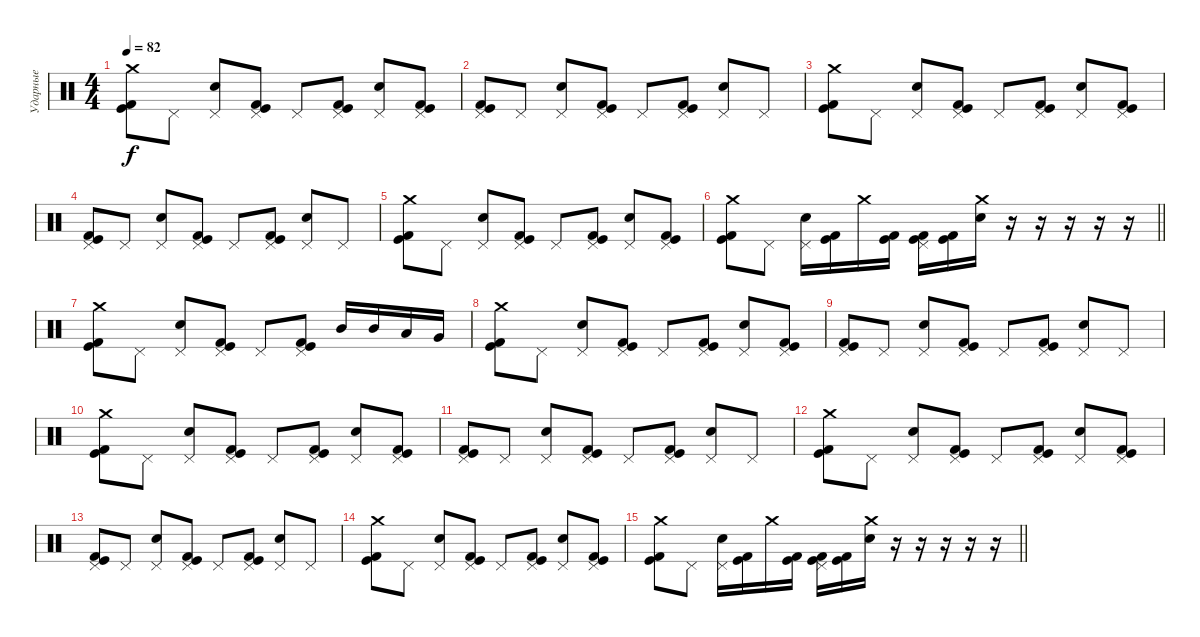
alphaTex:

\track ("Ударные" "Ударные") {instrument percussion}
\staff {score}
\articulation defaults
\ts (4 4)
\tempo 82
\clef neutral
\ks c
("Crash medium (hit)" "Kick (hit)" "Kick (hit) 2").8{dy f} "Pedal Hi-Hat (hit)".8 ("Pedal Hi-Hat (hit)" "Electric Snare (hit)").8 ("Pedal Hi-Hat (hit)" "Kick (hit)" "Kick (hit) 2").8 "Pedal Hi-Hat (hit)".8 ("Pedal Hi-Hat (hit)" "Kick (hit)" "Kick (hit) 2").8 ("Pedal Hi-Hat (hit)" "Electric Snare (hit)").8 ("Pedal Hi-Hat (hit)" "Kick (hit)" "Kick (hit) 2").8 |
("Pedal Hi-Hat (hit)" "Kick (hit)" "Kick (hit) 2").8 "Pedal Hi-Hat (hit)".8 ("Pedal Hi-Hat (hit)" "Electric Snare (hit)").8 ("Pedal Hi-Hat (hit)" "Kick (hit)" "Kick (hit) 2").8 "Pedal Hi-Hat (hit)".8 ("Pedal Hi-Hat (hit)" "Kick (hit)" "Kick (hit) 2").8 ("Pedal Hi-Hat (hit)" "Electric Snare (hit)").8 "Pedal Hi-Hat (hit)".8 |
("Crash medium (hit)" "Kick (hit)" "Kick (hit) 2").8 "Pedal Hi-Hat (hit)".8 ("Pedal Hi-Hat (hit)" "Electric Snare (hit)").8 ("Pedal Hi-Hat (hit)" "Kick (hit)" "Kick (hit) 2").8 "Pedal Hi-Hat (hit)".8 ("Pedal Hi-Hat (hit)" "Kick (hit)" "Kick (hit) 2").8 ("Pedal Hi-Hat (hit)" "Electric Snare (hit)").8 ("Pedal Hi-Hat (hit)" "Kick (hit)" "Kick (hit) 2").8 |
("Pedal Hi-Hat (hit)" "Kick (hit)" "Kick (hit) 2").8 "Pedal Hi-Hat (hit)".8 ("Pedal Hi-Hat (hit)" "Electric Snare (hit)").8 ("Pedal Hi-Hat (hit)" "Kick (hit)" "Kick (hit) 2").8 "Pedal Hi-Hat (hit)".8 ("Pedal Hi-Hat (hit)" "Kick (hit)" "Kick (hit) 2").8 ("Pedal Hi-Hat (hit)" "Electric Snare (hit)").8 "Pedal Hi-Hat (hit)".8 |
("Crash medium (hit)" "Kick (hit)" "Kick (hit) 2").8 "Pedal Hi-Hat (hit)".8 ("Pedal Hi-Hat (hit)" "Electric Snare (hit)").8 ("Pedal Hi-Hat (hit)" "Kick (hit)" "Kick (hit) 2").8 "Pedal Hi-Hat (hit)".8 ("Pedal Hi-Hat (hit)" "Kick (hit)" "Kick (hit) 2").8 ("Pedal Hi-Hat (hit)" "Electric Snare (hit)").8 ("Pedal Hi-Hat (hit)" "Kick (hit)" "Kick (hit) 2").8 |
\barLineRight lightlight
("Crash medium (hit)" "Kick (hit)" "Kick (hit) 2").8 "Pedal Hi-Hat (hit)".8 ("Pedal Hi-Hat (hit)" "Electric Snare (hit)").16 ("Kick (hit)" "Kick (hit) 2").16 "Crash medium (hit)".16 ("Kick (hit)" "Kick (hit) 2").16 ("Pedal Hi-Hat (hit)" "Kick (hit)" "Kick (hit) 2").16 ("Kick (hit)" "Kick (hit) 2").16 ("Crash medium (hit)" "Electric Snare (hit)").16 r.16 r.16 r.16 r.16 r.16 |
("Crash medium (hit)" "Kick (hit)" "Kick (hit) 2").8 "Pedal Hi-Hat (hit)".8 ("Pedal Hi-Hat (hit)" "Electric Snare (hit)").8 ("Pedal Hi-Hat (hit)" "Kick (hit)" "Kick (hit) 2").8 "Pedal Hi-Hat (hit)".8 ("Pedal Hi-Hat (hit)" "Kick (hit)" "Kick (hit) 2").8 "Mid Tom (hit)".16 "Mid Tom (hit)".16 "Low Tom (hit)".16 "Very Low Tom (hit)".16 |
("Crash medium (hit)" "Kick (hit)" "Kick (hit) 2").8 "Pedal Hi-Hat (hit)".8 ("Pedal Hi-Hat (hit)" "Electric Snare (hit)").8 ("Pedal Hi-Hat (hit)" "Kick (hit)" "Kick (hit) 2").8 "Pedal Hi-Hat (hit)".8 ("Pedal Hi-Hat (hit)" "Kick (hit)" "Kick (hit) 2").8 ("Pedal Hi-Hat (hit)" "Electric Snare (hit)").8 ("Pedal Hi-Hat (hit)" "Kick (hit)" "Kick (hit) 2").8 |
("Pedal Hi-Hat (hit)" "Kick (hit)" "Kick (hit) 2").8 "Pedal Hi-Hat (hit)".8 ("Pedal Hi-Hat (hit)" "Electric Snare (hit)").8 ("Pedal Hi-Hat (hit)" "Kick (hit)" "Kick (hit) 2").8 "Pedal Hi-Hat (hit)".8 ("Pedal Hi-Hat (hit)" "Kick (hit)" "Kick (hit) 2").8 ("Pedal Hi-Hat (hit)" "Electric Snare (hit)").8 "Pedal Hi-Hat (hit)".8 |
("Crash medium (hit)" "Kick (hit)" "Kick (hit) 2").8 "Pedal Hi-Hat (hit)".8 ("Pedal Hi-Hat (hit)" "Electric Snare (hit)").8 ("Pedal Hi-Hat (hit)" "Kick (hit)" "Kick (hit) 2").8 "Pedal Hi-Hat (hit)".8 ("Pedal Hi-Hat (hit)" "Kick (hit)" "Kick (hit) 2").8 ("Pedal Hi-Hat (hit)" "Electric Snare (hit)").8 ("Pedal Hi-Hat (hit)" "Kick (hit)" "Kick (hit) 2").8 |
("Pedal Hi-Hat (hit)" "Kick (hit)" "Kick (hit) 2").8 "Pedal Hi-Hat (hit)".8 ("Pedal Hi-Hat (hit)" "Electric Snare (hit)").8 ("Pedal Hi-Hat (hit)" "Kick (hit)" "Kick (hit) 2").8 "Pedal Hi-Hat (hit)".8 ("Pedal Hi-Hat (hit)" "Kick (hit)" "Kick (hit) 2").8 ("Pedal Hi-Hat (hit)" "Electric Snare (hit)").8 "Pedal Hi-Hat (hit)".8 |
("Crash medium (hit)" "Kick (hit)" "Kick (hit) 2").8 "Pedal Hi-Hat (hit)".8 ("Pedal Hi-Hat (hit)" "Electric Snare (hit)").8 ("Pedal Hi-Hat (hit)" "Kick (hit)" "Kick (hit) 2").8 "Pedal Hi-Hat (hit)".8 ("Pedal Hi-Hat (hit)" "Kick (hit)" "Kick (hit) 2").8 ("Pedal Hi-Hat (hit)" "Electric Snare (hit)").8 ("Pedal Hi-Hat (hit)" "Kick (hit)" "Kick (hit) 2").8 |
("Pedal Hi-Hat (hit)" "Kick (hit)" "Kick (hit) 2").8 "Pedal Hi-Hat (hit)".8 ("Pedal Hi-Hat (hit)" "Electric Snare (hit)").8 ("Pedal Hi-Hat (hit)" "Kick (hit)" "Kick (hit) 2").8 "Pedal Hi-Hat (hit)".8 ("Pedal Hi-Hat (hit)" "Kick (hit)" "Kick (hit) 2").8 ("Pedal Hi-Hat (hit)" "Electric Snare (hit)").8 "Pedal Hi-Hat (hit)".8 |
("Crash medium (hit)" "Kick (hit)" "Kick (hit) 2").8 "Pedal Hi-Hat (hit)".8 ("Pedal Hi-Hat (hit)" "Electric Snare (hit)").8 ("Pedal Hi-Hat (hit)" "Kick (hit)" "Kick (hit) 2").8 "Pedal Hi-Hat (hit)".8 ("Pedal Hi-Hat (hit)" "Kick (hit)" "Kick (hit) 2").8 ("Pedal Hi-Hat (hit)" "Electric Snare (hit)").8 ("Pedal Hi-Hat (hit)" "Kick (hit)" "Kick (hit) 2").8 |
\barLineRight lightlight
("Crash medium (hit)" "Kick (hit)" "Kick (hit) 2").8 "Pedal Hi-Hat (hit)".8 ("Pedal Hi-Hat (hit)" "Electric Snare (hit)").16 ("Kick (hit)" "Kick (hit) 2").16 "Crash medium (hit)".16 ("Kick (hit)" "Kick (hit) 2").16 ("Pedal Hi-Hat (hit)" "Kick (hit)" "Kick (hit) 2").16 ("Kick (hit)" "Kick (hit) 2").16 ("Crash medium (hit)" "Electric Snare (hit)").16 r.16 r.16 r.16 r.16 r.16
